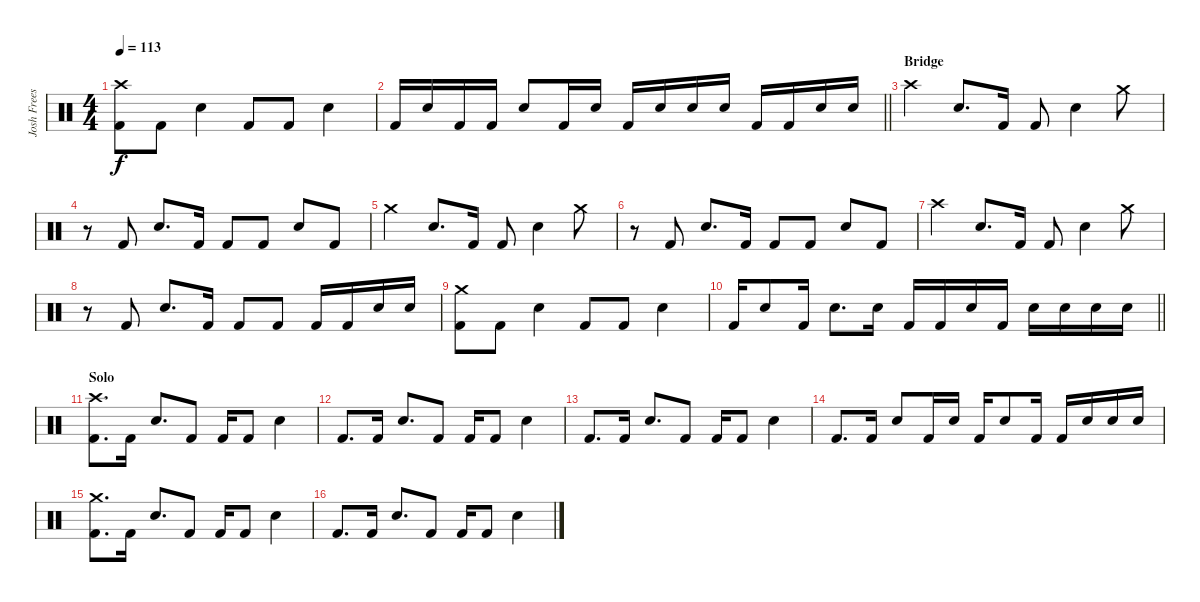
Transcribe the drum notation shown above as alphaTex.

\track ("Josh Freese (Studio Drummer)" "Josh Frees") {instrument percussion}
\staff {score}
\articulation defaults
\ts (4 4)
\tempo 113
\clef neutral
\ks c
("Crash high (hit)" "Kick (hit) 2").8{dy f} "Kick (hit) 2".8 "Electric Snare (hit)".4 "Kick (hit) 2".8 "Kick (hit) 2".8 "Electric Snare (hit)".4 |
\barLineRight lightlight "Kick (hit) 2".16 "Electric Snare (hit)".16 "Kick (hit) 2".16 "Kick (hit) 2".16 "Electric Snare (hit)".8 "Kick (hit) 2".16 "Electric Snare (hit)".16 "Kick (hit) 2".16 "Snare (hit) 2".16 "Snare (hit) 2".16 "Snare (hit) 2".16 "Kick (hit) 2".16 "Kick (hit) 2".16 "Electric Snare (hit)".16 "Electric Snare (hit)".16
|
\section ("" "Bridge")
"Crash high (hit)".4 "Electric Snare (hit)".8{d} "Kick (hit) 2".16 "Kick (hit) 2".8 "Electric Snare (hit)".4 "Crash medium (hit)".8 |
r.8 "Kick (hit) 2".8 "Electric Snare (hit)".8{d} "Kick (hit) 2".16 "Kick (hit) 2".8 "Kick (hit) 2".8 "Electric Snare (hit)".8 "Kick (hit) 2".8 |
"Crash medium (hit)".4 "Electric Snare (hit)".8{d} "Kick (hit) 2".16 "Kick (hit) 2".8 "Electric Snare (hit)".4 "Crash medium (hit)".8 |
r.8 "Kick (hit) 2".8 "Electric Snare (hit)".8{d} "Kick (hit) 2".16 "Kick (hit) 2".8 "Kick (hit) 2".8 "Electric Snare (hit)".8 "Kick (hit) 2".8 |
"Crash high (hit)".4 "Electric Snare (hit)".8{d} "Kick (hit) 2".16 "Kick (hit) 2".8 "Electric Snare (hit)".4 "Crash medium (hit)".8 |
r.8 "Kick (hit) 2".8 "Electric Snare (hit)".8{d} "Kick (hit) 2".16 "Kick (hit) 2".8 "Kick (hit) 2".8 "Kick (hit) 2".16 "Kick (hit) 2".16 "Electric Snare (hit)".16 "Electric Snare (hit)".16 |
("Crash medium (hit)" "Kick (hit) 2").8 "Kick (hit) 2".8 "Electric Snare (hit)".4 "Kick (hit) 2".8 "Kick (hit) 2".8 "Electric Snare (hit)".4 |
\barLineRight lightlight "Kick (hit) 2".16 "Electric Snare (hit)".8 "Kick (hit) 2".16 "Electric Snare (hit)".8{d} "Electric Snare (hit)".16 "Kick (hit) 2".16 "Kick (hit) 2".16 "Electric Snare (hit)".16 "Kick (hit) 2".16 "Electric Snare (hit)".16 "Electric Snare (hit)".16 "Electric Snare (hit)".16 "Electric Snare (hit)".16
|
\section ("" "Solo")
("Crash high (hit)" "Kick (hit) 2").8{d} "Kick (hit) 2".16 "Electric Snare (hit)".8{d} "Kick (hit) 2".8 "Kick (hit) 2".16 "Kick (hit) 2".8 "Electric Snare (hit)".4 |
"Kick (hit) 2".8{d} "Kick (hit) 2".16 "Electric Snare (hit)".8{d} "Kick (hit) 2".8 "Kick (hit) 2".16 "Kick (hit) 2".8 "Electric Snare (hit)".4 |
"Kick (hit) 2".8{d} "Kick (hit) 2".16 "Electric Snare (hit)".8{d} "Kick (hit) 2".8 "Kick (hit) 2".16 "Kick (hit) 2".8 "Electric Snare (hit)".4 |
"Kick (hit) 2".8{d} "Kick (hit) 2".16 "Electric Snare (hit)".8 "Kick (hit) 2".16 "Electric Snare (hit)".16 "Kick (hit) 2".16 "Electric Snare (hit)".8 "Kick (hit) 2".16 "Kick (hit) 2".16 "Electric Snare (hit)".16 "Electric Snare (hit)".16 "Electric Snare (hit)".16 |
("Crash medium (hit)" "Kick (hit) 2").8{d} "Kick (hit) 2".16 "Electric Snare (hit)".8{d} "Kick (hit) 2".8 "Kick (hit) 2".16 "Kick (hit) 2".8 "Electric Snare (hit)".4 |
"Kick (hit) 2".8{d} "Kick (hit) 2".16 "Electric Snare (hit)".8{d} "Kick (hit) 2".8 "Kick (hit) 2".16 "Kick (hit) 2".8 "Electric Snare (hit)".4
